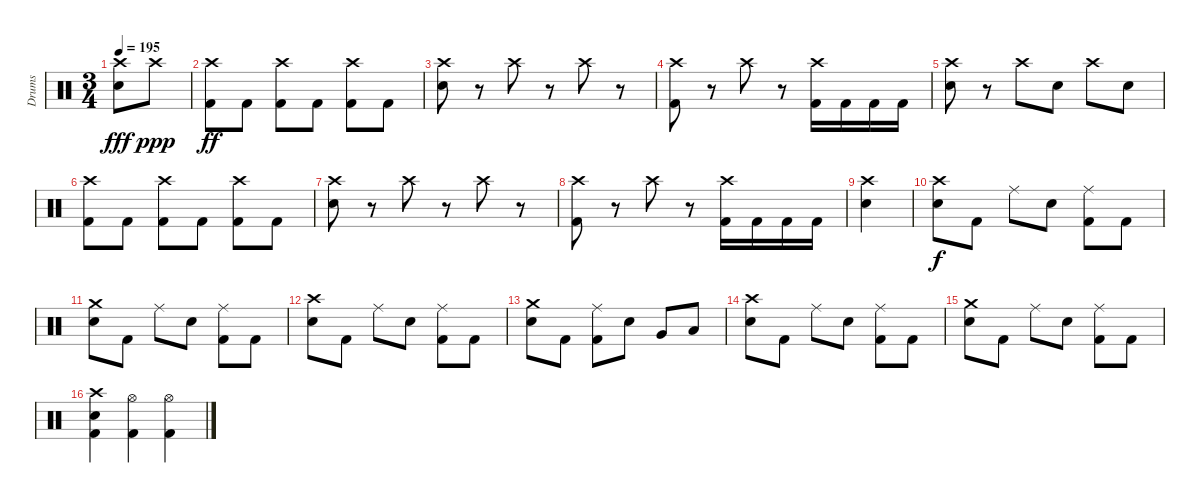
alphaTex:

\track ("Drums" "Drums") {instrument percussion}
\staff {score}
\articulation defaults
\ts (3 4)
\tempo 195
\clef neutral
\ks c
("Crash high (hit)" "Electric Snare (hit)").8{dy fff} "Crash high (hit)".8{dy ppp} |
("Crash high (hit)" "Kick (hit) 2").8{dy ff} "Kick (hit) 2".8 ("Crash high (hit)" "Kick (hit) 2").8 "Kick (hit) 2".8 ("Crash high (hit)" "Kick (hit) 2").8 "Kick (hit) 2".8 |
("Crash high (hit)" "Electric Snare (hit)").8 r.8 "Crash high (hit)".8 r.8 "Crash high (hit)".8 r.8 |
("Crash high (hit)" "Kick (hit) 2").8 r.8 "Crash high (hit)".8 r.8 ("Crash high (hit)" "Kick (hit) 2").16 "Kick (hit) 2".16 "Kick (hit) 2".16 "Kick (hit) 2".16 |
("Crash high (hit)" "Electric Snare (hit)").8 r.8 "Crash high (hit)".8 "Electric Snare (hit)".8 "Crash high (hit)".8 "Electric Snare (hit)".8 |
("Crash high (hit)" "Kick (hit) 2").8 "Kick (hit) 2".8 ("Crash high (hit)" "Kick (hit) 2").8 "Kick (hit) 2".8 ("Crash high (hit)" "Kick (hit) 2").8 "Kick (hit) 2".8 |
("Crash high (hit)" "Electric Snare (hit)").8 r.8 "Crash high (hit)".8 r.8 "Crash high (hit)".8 r.8 |
("Crash high (hit)" "Kick (hit) 2").8 r.8 "Crash high (hit)".8 r.8 ("Crash high (hit)" "Kick (hit) 2").16 "Kick (hit) 2".16 "Kick (hit) 2".16 "Kick (hit) 2".16 |
("Crash high (hit)" "Electric Snare (hit)").4 |
("Crash high (hit)" "Electric Snare (hit)").8{dy f} "Kick (hit) 2".8 "Ride (middle)".8 "Electric Snare (hit)".8 ("Ride (middle)" "Kick (hit) 2").8 "Kick (hit) 2".8 |
("Crash medium (hit)" "Electric Snare (hit)").8 "Kick (hit) 2".8 "Ride (middle)".8 "Electric Snare (hit)".8 ("Ride (middle)" "Kick (hit) 2").8 "Kick (hit) 2".8 |
("Crash high (hit)" "Electric Snare (hit)").8 "Kick (hit) 2".8 "Ride (middle)".8 "Electric Snare (hit)".8 ("Ride (middle)" "Kick (hit) 2").8 "Kick (hit) 2".8 |
("Crash medium (hit)" "Electric Snare (hit)").8 "Kick (hit) 2".8 ("Ride (middle)" "Kick (hit) 2").8 "Electric Snare (hit)".8 "Very Low Tom (hit)".8 "Low Floor Tom (hit)".8 |
("Crash high (hit)" "Electric Snare (hit)").8 "Kick (hit) 2".8 "Ride (middle)".8 "Electric Snare (hit)".8 ("Ride (middle)" "Kick (hit) 2").8 "Kick (hit) 2".8 |
("Crash medium (hit)" "Electric Snare (hit)").8 "Kick (hit) 2".8 "Ride (middle)".8 "Electric Snare (hit)".8 ("Ride (middle)" "Kick (hit) 2").8 "Kick (hit) 2".8 |
("Crash high (hit)" "Electric Snare (hit)" "Kick (hit) 2").4 ("Hi-Hat (open)" "Kick (hit) 2").4 ("Hi-Hat (open)" "Kick (hit) 2").4
